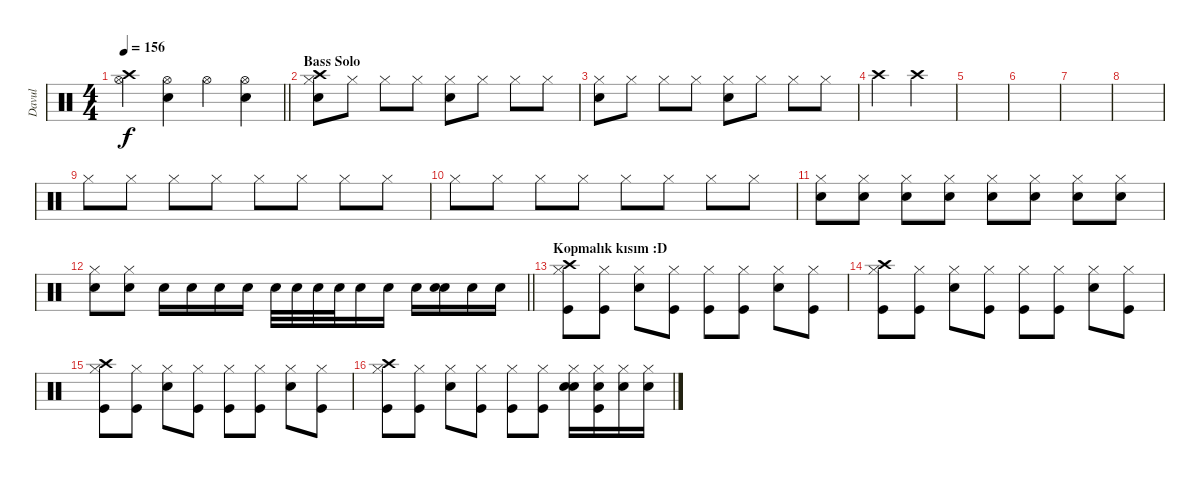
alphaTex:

\track ("Davul" "Davul") {instrument percussion}
\staff {score}
\articulation defaults
\ts (4 4)
\tempo 156
\clef neutral
\barLineRight lightlight
\ks c
("Hi-Hat (open)" "Crash high (hit)").4{dy f} ("Hi-Hat (open)" "Snare (hit) 2").4 "Hi-Hat (open)".4 ("Hi-Hat (open)" "Snare (hit) 2").4 |
\section ("" "Bass Solo")
("Hi-Hat (closed)" "Snare (hit) 2" "Crash high (hit)").8 "Hi-Hat (closed)".8 "Hi-Hat (closed)".8 "Hi-Hat (closed)".8 ("Hi-Hat (closed)" "Snare (hit) 2").8 "Hi-Hat (closed)".8 "Hi-Hat (closed)".8 "Hi-Hat (closed)".8 |
("Hi-Hat (closed)" "Snare (hit) 2").8 "Hi-Hat (closed)".8 "Hi-Hat (closed)".8 "Hi-Hat (closed)".8 ("Hi-Hat (closed)" "Snare (hit) 2").8 "Hi-Hat (closed)".8 "Hi-Hat (closed)".8 "Hi-Hat (closed)".8 |
"Crash high (hit)".4 "Crash high (hit)".4 |
|
|
|
|
"Hi-Hat (closed)".8{volume 12} "Hi-Hat (closed)".8 "Hi-Hat (closed)".8 "Hi-Hat (closed)".8 "Hi-Hat (closed)".8 "Hi-Hat (closed)".8 "Hi-Hat (closed)".8 "Hi-Hat (closed)".8 |
"Hi-Hat (closed)".8 "Hi-Hat (closed)".8 "Hi-Hat (closed)".8 "Hi-Hat (closed)".8 "Hi-Hat (closed)".8 "Hi-Hat (closed)".8 "Hi-Hat (closed)".8 "Hi-Hat (closed)".8 |
("Hi-Hat (closed)" "Snare (hit) 2").8 ("Hi-Hat (closed)" "Snare (hit) 2").8 ("Hi-Hat (closed)" "Snare (hit) 2").8 ("Hi-Hat (closed)" "Snare (hit) 2").8 ("Hi-Hat (closed)" "Snare (hit) 2").8 ("Hi-Hat (closed)" "Snare (hit) 2").8 ("Hi-Hat (closed)" "Snare (hit) 2").8 ("Hi-Hat (closed)" "Snare (hit) 2").8 |
\barLineRight lightlight
("Hi-Hat (closed)" "Snare (hit) 2").8 ("Hi-Hat (closed)" "Snare (hit) 2").8 "Snare (hit) 2".16 "Snare (hit) 2".16 "Snare (hit) 2".16 "Snare (hit) 2".16 "Snare (hit) 2".32 "Snare (hit) 2".32 "Snare (hit) 2".32 "Snare (hit) 2".32 "Snare (hit) 2".16 "Snare (hit) 2".16 "Snare (hit) 2".16 ("Snare (hit) 2" "Snare (hit) 2").16 "Snare (hit) 2".16 "Snare (hit) 2".16 |
\section ("" "Kopmalık kısım :D")
("Hi-Hat (closed)" "Kick (hit)" "Crash high (hit)").8 ("Hi-Hat (closed)" "Kick (hit)").8 ("Hi-Hat (closed)" "Snare (hit) 2").8 ("Hi-Hat (closed)" "Kick (hit)").8 ("Hi-Hat (closed)" "Kick (hit)").8 ("Hi-Hat (closed)" "Kick (hit)").8 ("Hi-Hat (closed)" "Snare (hit) 2").8 ("Hi-Hat (closed)" "Kick (hit)").8 |
("Hi-Hat (closed)" "Kick (hit)" "Crash high (hit)").8 ("Hi-Hat (closed)" "Kick (hit)").8 ("Hi-Hat (closed)" "Snare (hit) 2").8 ("Hi-Hat (closed)" "Kick (hit)").8 ("Hi-Hat (closed)" "Kick (hit)").8 ("Hi-Hat (closed)" "Kick (hit)").8 ("Hi-Hat (closed)" "Snare (hit) 2").8 ("Hi-Hat (closed)" "Kick (hit)").8 |
("Hi-Hat (closed)" "Kick (hit)" "Crash high (hit)").8 ("Hi-Hat (closed)" "Kick (hit)").8 ("Hi-Hat (closed)" "Snare (hit) 2").8 ("Hi-Hat (closed)" "Kick (hit)").8 ("Hi-Hat (closed)" "Kick (hit)").8 ("Hi-Hat (closed)" "Kick (hit)").8 ("Hi-Hat (closed)" "Snare (hit) 2").8 ("Hi-Hat (closed)" "Kick (hit)").8 |
("Hi-Hat (closed)" "Kick (hit)" "Crash high (hit)").8 ("Hi-Hat (closed)" "Kick (hit)").8 ("Hi-Hat (closed)" "Snare (hit) 2").8 ("Hi-Hat (closed)" "Kick (hit)").8 ("Hi-Hat (closed)" "Kick (hit)").8 ("Hi-Hat (closed)" "Kick (hit)").8 ("Hi-Hat (closed)" "Snare (hit) 2" "Snare (hit) 2").16 ("Hi-Hat (closed)" "Kick (hit)" "Snare (hit) 2").16 ("Hi-Hat (closed)" "Snare (hit) 2").16 ("Hi-Hat (closed)" "Snare (hit) 2").16
